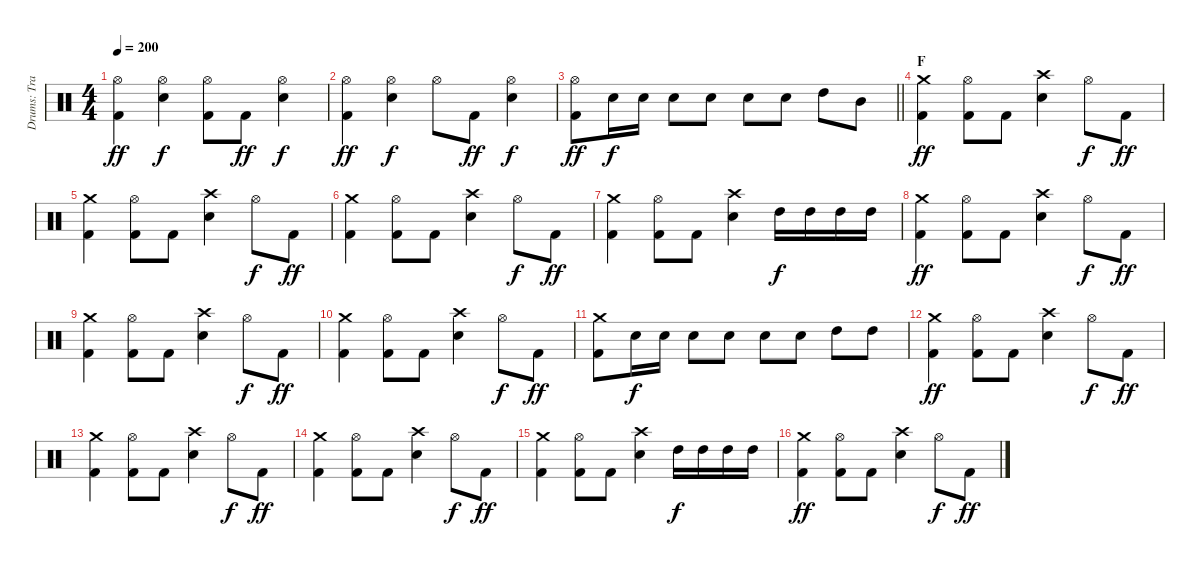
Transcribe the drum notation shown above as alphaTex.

\track ("Drums: Travis Clarke" "Drums: Tra") {instrument percussion}
\staff {score}
\articulation defaults
\ts (4 4)
\tempo 200
\clef neutral
\ks c
("Kick (hit) 2" "Hi-Hat (open)").4{dy ff} ("Snare (hit) 2" "Hi-Hat (open)").4{dy f} ("Kick (hit) 2" "Hi-Hat (open)").8 "Kick (hit) 2".8{dy ff} ("Snare (hit) 2" "Hi-Hat (open)").4{dy f} |
("Kick (hit) 2" "Hi-Hat (open)").4{dy ff} ("Snare (hit) 2" "Hi-Hat (open)").4{dy f} "Hi-Hat (open)".8 "Kick (hit) 2".8{dy ff} ("Snare (hit) 2" "Hi-Hat (open)").4{dy f} |
\barLineRight lightlight
("Kick (hit) 2" "Hi-Hat (open)").8{dy ff} "Snare (hit) 2".16{dy f} "Snare (hit) 2".16 "Snare (hit) 2".8 "Snare (hit) 2".8 "Snare (hit) 2".8 "Snare (hit) 2".8 "High Tom (hit)".8 "Mid Tom (hit)".8 |
\section ("" "F")
("Kick (hit) 2" "Crash medium (hit)").4{dy ff} ("Kick (hit) 2" "Hi-Hat (open)").8 "Kick (hit) 2".8 ("Snare (hit) 2" "Crash high (hit)").4 "Hi-Hat (open)".8{dy f} "Kick (hit) 2".8{dy ff} |
("Kick (hit) 2" "Crash medium (hit)").4 ("Kick (hit) 2" "Hi-Hat (open)").8 "Kick (hit) 2".8 ("Snare (hit) 2" "Crash high (hit)").4 "Hi-Hat (open)".8{dy f} "Kick (hit) 2".8{dy ff} |
("Kick (hit) 2" "Crash medium (hit)").4 ("Kick (hit) 2" "Hi-Hat (open)").8 "Kick (hit) 2".8 ("Snare (hit) 2" "Crash high (hit)").4 "Hi-Hat (open)".8{dy f} "Kick (hit) 2".8{dy ff} |
("Kick (hit) 2" "Crash medium (hit)").4 ("Kick (hit) 2" "Hi-Hat (open)").8 "Kick (hit) 2".8 ("Snare (hit) 2" "Crash high (hit)").4 "High Tom (hit)".16{dy f} "High Tom (hit)".16 "High Tom (hit)".16 "High Tom (hit)".16 |
("Kick (hit) 2" "Crash medium (hit)").4{dy ff} ("Kick (hit) 2" "Hi-Hat (open)").8 "Kick (hit) 2".8 ("Snare (hit) 2" "Crash high (hit)").4 "Hi-Hat (open)".8{dy f} "Kick (hit) 2".8{dy ff} |
("Kick (hit) 2" "Crash medium (hit)").4 ("Kick (hit) 2" "Hi-Hat (open)").8 "Kick (hit) 2".8 ("Snare (hit) 2" "Crash high (hit)").4 "Hi-Hat (open)".8{dy f} "Kick (hit) 2".8{dy ff} |
("Kick (hit) 2" "Crash medium (hit)").4 ("Kick (hit) 2" "Hi-Hat (open)").8 "Kick (hit) 2".8 ("Snare (hit) 2" "Crash high (hit)").4 "Hi-Hat (open)".8{dy f} "Kick (hit) 2".8{dy ff} |
("Kick (hit) 2" "Crash medium (hit)").8 "Snare (hit) 2".16{dy f} "Snare (hit) 2".16 "Snare (hit) 2".8 "Snare (hit) 2".8 "Snare (hit) 2".8 "Snare (hit) 2".8 "High Tom (hit)".8 "High Tom (hit)".8 |
("Kick (hit) 2" "Crash medium (hit)").4{dy ff} ("Kick (hit) 2" "Hi-Hat (open)").8 "Kick (hit) 2".8 ("Snare (hit) 2" "Crash high (hit)").4 "Hi-Hat (open)".8{dy f} "Kick (hit) 2".8{dy ff} |
("Kick (hit) 2" "Crash medium (hit)").4 ("Kick (hit) 2" "Hi-Hat (open)").8 "Kick (hit) 2".8 ("Snare (hit) 2" "Crash high (hit)").4 "Hi-Hat (open)".8{dy f} "Kick (hit) 2".8{dy ff} |
("Kick (hit) 2" "Crash medium (hit)").4 ("Kick (hit) 2" "Hi-Hat (open)").8 "Kick (hit) 2".8 ("Snare (hit) 2" "Crash high (hit)").4 "Hi-Hat (open)".8{dy f} "Kick (hit) 2".8{dy ff} |
("Kick (hit) 2" "Crash medium (hit)").4 ("Kick (hit) 2" "Hi-Hat (open)").8 "Kick (hit) 2".8 ("Snare (hit) 2" "Crash high (hit)").4 "High Tom (hit)".16{dy f} "High Tom (hit)".16 "High Tom (hit)".16 "High Tom (hit)".16 |
("Kick (hit) 2" "Crash medium (hit)").4{dy ff} ("Kick (hit) 2" "Hi-Hat (open)").8 "Kick (hit) 2".8 ("Snare (hit) 2" "Crash high (hit)").4 "Hi-Hat (open)".8{dy f} "Kick (hit) 2".8{dy ff}
